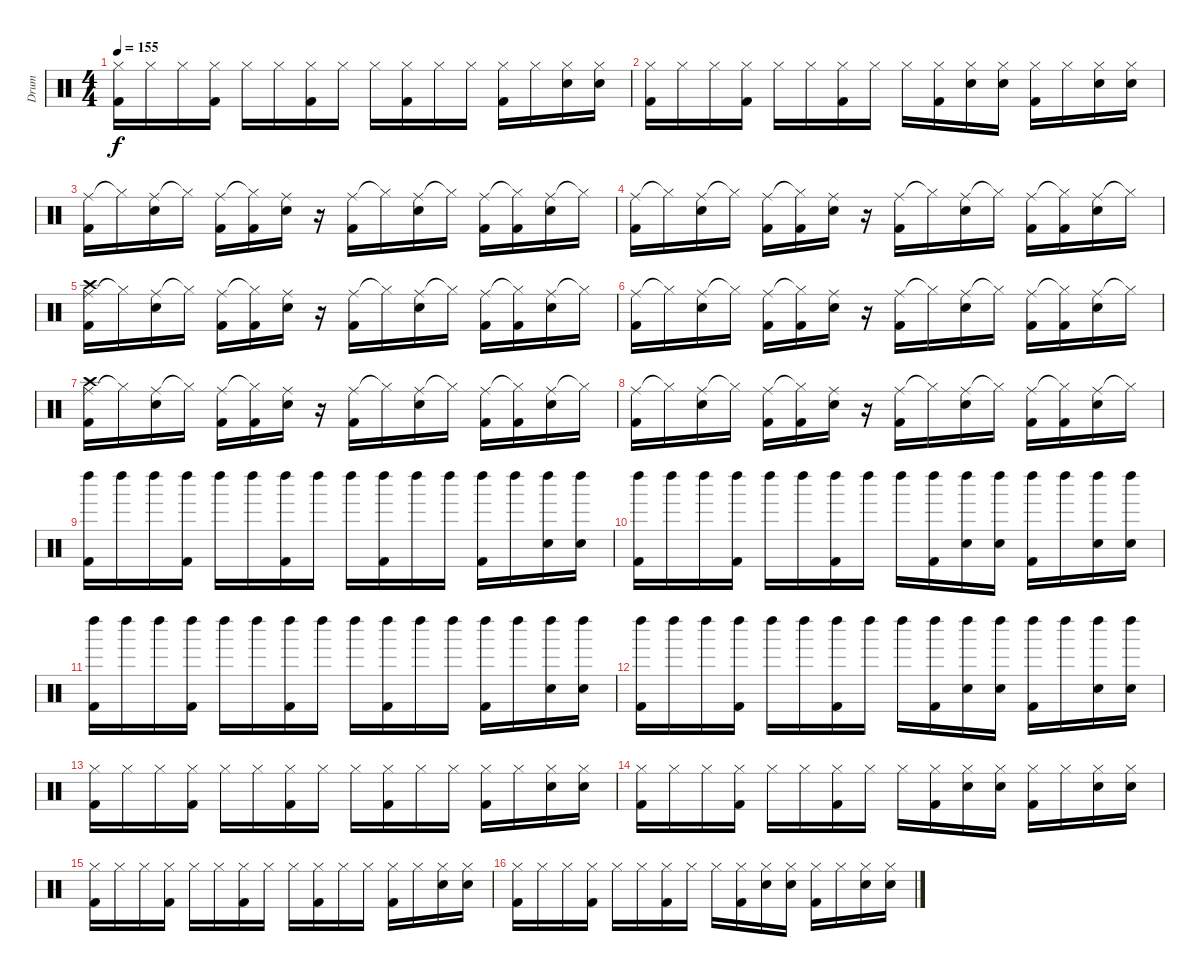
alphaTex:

\track ("Drum" "Drum") {instrument percussion}
\staff {score}
\articulation defaults
\ts (4 4)
\tempo 155
\clef neutral
\ks c
("Hi-Hat (closed)" "Kick (hit) 2").16{dy f} "Hi-Hat (closed)".16 "Hi-Hat (closed)".16 ("Hi-Hat (closed)" "Kick (hit) 2").16 "Hi-Hat (closed)".16 "Hi-Hat (closed)".16 ("Hi-Hat (closed)" "Kick (hit) 2").16 "Hi-Hat (closed)".16 "Hi-Hat (closed)".16 ("Hi-Hat (closed)" "Kick (hit) 2").16 "Hi-Hat (closed)".16 "Hi-Hat (closed)".16 ("Hi-Hat (closed)" "Kick (hit) 2").16 "Hi-Hat (closed)".16 ("Hi-Hat (closed)" "Snare (hit) 2").16 ("Hi-Hat (closed)" "Snare (hit) 2").16 |
("Hi-Hat (closed)" "Kick (hit) 2").16 "Hi-Hat (closed)".16 "Hi-Hat (closed)".16 ("Hi-Hat (closed)" "Kick (hit) 2").16 "Hi-Hat (closed)".16 "Hi-Hat (closed)".16 ("Hi-Hat (closed)" "Kick (hit) 2").16 "Hi-Hat (closed)".16 "Hi-Hat (closed)".16 ("Hi-Hat (closed)" "Kick (hit) 2").16 ("Hi-Hat (closed)" "Snare (hit) 2").16 ("Hi-Hat (closed)" "Snare (hit) 2").16 ("Hi-Hat (closed)" "Kick (hit) 2").16 "Hi-Hat (closed)".16 ("Hi-Hat (closed)" "Snare (hit) 2").16 ("Hi-Hat (closed)" "Snare (hit) 2").16 |
("Ride (middle)" "Kick (hit) 2").16 "Hi-Hat (closed)"{t}.16 ("Ride (middle)" "Snare (hit) 2").16 "Hi-Hat (closed)"{t}.16 ("Ride (middle)" "Kick (hit) 2").16 ("Hi-Hat (closed)"{t} "Kick (hit) 2").16 ("Ride (middle)" "Snare (hit) 2").16 r.16 ("Ride (middle)" "Kick (hit) 2").16 "Hi-Hat (closed)"{t}.16 ("Ride (middle)" "Snare (hit) 2").16 "Hi-Hat (closed)"{t}.16 ("Ride (middle)" "Kick (hit) 2").16 ("Hi-Hat (closed)"{t} "Kick (hit) 2").16 ("Ride (middle)" "Snare (hit) 2").16 "Hi-Hat (closed)"{t}.16 |
("Ride (middle)" "Kick (hit) 2").16 "Hi-Hat (closed)"{t}.16 ("Ride (middle)" "Snare (hit) 2").16 "Hi-Hat (closed)"{t}.16 ("Ride (middle)" "Kick (hit) 2").16 ("Hi-Hat (closed)"{t} "Kick (hit) 2").16 ("Ride (middle)" "Snare (hit) 2").16 r.16 ("Ride (middle)" "Kick (hit) 2").16 "Hi-Hat (closed)"{t}.16 ("Ride (middle)" "Snare (hit) 2").16 "Hi-Hat (closed)"{t}.16 ("Ride (middle)" "Kick (hit) 2").16 ("Hi-Hat (closed)"{t} "Kick (hit) 2").16 ("Ride (middle)" "Snare (hit) 2").16 "Hi-Hat (closed)"{t}.16 |
("Ride (middle)" "Crash high (hit)" "Kick (hit) 2").16 "Hi-Hat (closed)"{t}.16 ("Ride (middle)" "Snare (hit) 2").16 "Hi-Hat (closed)"{t}.16 ("Ride (middle)" "Kick (hit) 2").16 ("Hi-Hat (closed)"{t} "Kick (hit) 2").16 ("Ride (middle)" "Snare (hit) 2").16 r.16 ("Ride (middle)" "Kick (hit) 2").16 "Hi-Hat (closed)"{t}.16 ("Ride (middle)" "Snare (hit) 2").16 "Hi-Hat (closed)"{t}.16 ("Ride (middle)" "Kick (hit) 2").16 ("Hi-Hat (closed)"{t} "Kick (hit) 2").16 ("Ride (middle)" "Snare (hit) 2").16 "Hi-Hat (closed)"{t}.16 |
("Ride (middle)" "Kick (hit) 2").16 "Hi-Hat (closed)"{t}.16 ("Ride (middle)" "Snare (hit) 2").16 "Hi-Hat (closed)"{t}.16 ("Ride (middle)" "Kick (hit) 2").16 ("Hi-Hat (closed)"{t} "Kick (hit) 2").16 ("Ride (middle)" "Snare (hit) 2").16 r.16 ("Ride (middle)" "Kick (hit) 2").16 "Hi-Hat (closed)"{t}.16 ("Ride (middle)" "Snare (hit) 2").16 "Hi-Hat (closed)"{t}.16 ("Ride (middle)" "Kick (hit) 2").16 ("Hi-Hat (closed)"{t} "Kick (hit) 2").16 ("Ride (middle)" "Snare (hit) 2").16 "Hi-Hat (closed)"{t}.16 |
("Ride (middle)" "Crash high (hit)" "Kick (hit) 2").16 "Hi-Hat (closed)"{t}.16 ("Ride (middle)" "Snare (hit) 2").16 "Hi-Hat (closed)"{t}.16 ("Ride (middle)" "Kick (hit) 2").16 ("Hi-Hat (closed)"{t} "Kick (hit) 2").16 ("Ride (middle)" "Snare (hit) 2").16 r.16 ("Ride (middle)" "Kick (hit) 2").16 "Hi-Hat (closed)"{t}.16 ("Ride (middle)" "Snare (hit) 2").16 "Hi-Hat (closed)"{t}.16 ("Ride (middle)" "Kick (hit) 2").16 ("Hi-Hat (closed)"{t} "Kick (hit) 2").16 ("Ride (middle)" "Snare (hit) 2").16 "Hi-Hat (closed)"{t}.16 |
("Ride (middle)" "Kick (hit) 2").16 "Hi-Hat (closed)"{t}.16 ("Ride (middle)" "Snare (hit) 2").16 "Hi-Hat (closed)"{t}.16 ("Ride (middle)" "Kick (hit) 2").16 ("Hi-Hat (closed)"{t} "Kick (hit) 2").16 ("Ride (middle)" "Snare (hit) 2").16 r.16 ("Ride (middle)" "Kick (hit) 2").16 "Hi-Hat (closed)"{t}.16 ("Ride (middle)" "Snare (hit) 2").16 "Hi-Hat (closed)"{t}.16 ("Ride (middle)" "Kick (hit) 2").16 ("Hi-Hat (closed)"{t} "Kick (hit) 2").16 ("Ride (middle)" "Snare (hit) 2").16 "Hi-Hat (closed)"{t}.16 |
("Left Maraca (hit)" "Kick (hit) 2").16 "Left Maraca (hit)".16 "Left Maraca (hit)".16 ("Left Maraca (hit)" "Kick (hit) 2").16 "Left Maraca (hit)".16 "Left Maraca (hit)".16 ("Left Maraca (hit)" "Kick (hit) 2").16 "Left Maraca (hit)".16 "Left Maraca (hit)".16 ("Left Maraca (hit)" "Kick (hit) 2").16 "Left Maraca (hit)".16 "Left Maraca (hit)".16 ("Left Maraca (hit)" "Kick (hit) 2").16 "Left Maraca (hit)".16 ("Left Maraca (hit)" "Snare (hit) 2").16 ("Left Maraca (hit)" "Snare (hit) 2").16 |
("Left Maraca (hit)" "Kick (hit) 2").16 "Left Maraca (hit)".16 "Left Maraca (hit)".16 ("Left Maraca (hit)" "Kick (hit) 2").16 "Left Maraca (hit)".16 "Left Maraca (hit)".16 ("Left Maraca (hit)" "Kick (hit) 2").16 "Left Maraca (hit)".16 "Left Maraca (hit)".16 ("Left Maraca (hit)" "Kick (hit) 2").16 ("Left Maraca (hit)" "Snare (hit) 2").16 ("Left Maraca (hit)" "Snare (hit) 2").16 ("Left Maraca (hit)" "Kick (hit) 2").16 "Left Maraca (hit)".16 ("Left Maraca (hit)" "Snare (hit) 2").16 ("Left Maraca (hit)" "Snare (hit) 2").16 |
("Left Maraca (hit)" "Kick (hit) 2").16 "Left Maraca (hit)".16 "Left Maraca (hit)".16 ("Left Maraca (hit)" "Kick (hit) 2").16 "Left Maraca (hit)".16 "Left Maraca (hit)".16 ("Left Maraca (hit)" "Kick (hit) 2").16 "Left Maraca (hit)".16 "Left Maraca (hit)".16 ("Left Maraca (hit)" "Kick (hit) 2").16 "Left Maraca (hit)".16 "Left Maraca (hit)".16 ("Left Maraca (hit)" "Kick (hit) 2").16 "Left Maraca (hit)".16 ("Left Maraca (hit)" "Snare (hit) 2").16 ("Left Maraca (hit)" "Snare (hit) 2").16 |
("Left Maraca (hit)" "Kick (hit) 2").16 "Left Maraca (hit)".16 "Left Maraca (hit)".16 ("Left Maraca (hit)" "Kick (hit) 2").16 "Left Maraca (hit)".16 "Left Maraca (hit)".16 ("Left Maraca (hit)" "Kick (hit) 2").16 "Left Maraca (hit)".16 "Left Maraca (hit)".16 ("Left Maraca (hit)" "Kick (hit) 2").16 ("Left Maraca (hit)" "Snare (hit) 2").16 ("Left Maraca (hit)" "Snare (hit) 2").16 ("Left Maraca (hit)" "Kick (hit) 2").16 "Left Maraca (hit)".16 ("Left Maraca (hit)" "Snare (hit) 2").16 ("Left Maraca (hit)" "Snare (hit) 2").16 |
("Hi-Hat (closed)" "Kick (hit) 2").16 "Hi-Hat (closed)".16 "Hi-Hat (closed)".16 ("Hi-Hat (closed)" "Kick (hit) 2").16 "Hi-Hat (closed)".16 "Hi-Hat (closed)".16 ("Hi-Hat (closed)" "Kick (hit) 2").16 "Hi-Hat (closed)".16 "Hi-Hat (closed)".16 ("Hi-Hat (closed)" "Kick (hit) 2").16 "Hi-Hat (closed)".16 "Hi-Hat (closed)".16 ("Hi-Hat (closed)" "Kick (hit) 2").16 "Hi-Hat (closed)".16 ("Hi-Hat (closed)" "Snare (hit) 2").16 ("Hi-Hat (closed)" "Snare (hit) 2").16 |
("Hi-Hat (closed)" "Kick (hit) 2").16 "Hi-Hat (closed)".16 "Hi-Hat (closed)".16 ("Hi-Hat (closed)" "Kick (hit) 2").16 "Hi-Hat (closed)".16 "Hi-Hat (closed)".16 ("Hi-Hat (closed)" "Kick (hit) 2").16 "Hi-Hat (closed)".16 "Hi-Hat (closed)".16 ("Hi-Hat (closed)" "Kick (hit) 2").16 ("Hi-Hat (closed)" "Snare (hit) 2").16 ("Hi-Hat (closed)" "Snare (hit) 2").16 ("Hi-Hat (closed)" "Kick (hit) 2").16 "Hi-Hat (closed)".16 ("Hi-Hat (closed)" "Snare (hit) 2").16 ("Hi-Hat (closed)" "Snare (hit) 2").16 |
("Hi-Hat (closed)" "Kick (hit) 2").16 "Hi-Hat (closed)".16 "Hi-Hat (closed)".16 ("Hi-Hat (closed)" "Kick (hit) 2").16 "Hi-Hat (closed)".16 "Hi-Hat (closed)".16 ("Hi-Hat (closed)" "Kick (hit) 2").16 "Hi-Hat (closed)".16 "Hi-Hat (closed)".16 ("Hi-Hat (closed)" "Kick (hit) 2").16 "Hi-Hat (closed)".16 "Hi-Hat (closed)".16 ("Hi-Hat (closed)" "Kick (hit) 2").16 "Hi-Hat (closed)".16 ("Hi-Hat (closed)" "Snare (hit) 2").16 ("Hi-Hat (closed)" "Snare (hit) 2").16 |
("Hi-Hat (closed)" "Kick (hit) 2").16 "Hi-Hat (closed)".16 "Hi-Hat (closed)".16 ("Hi-Hat (closed)" "Kick (hit) 2").16 "Hi-Hat (closed)".16 "Hi-Hat (closed)".16 ("Hi-Hat (closed)" "Kick (hit) 2").16 "Hi-Hat (closed)".16 "Hi-Hat (closed)".16 ("Hi-Hat (closed)" "Kick (hit) 2").16 ("Hi-Hat (closed)" "Snare (hit) 2").16 ("Hi-Hat (closed)" "Snare (hit) 2").16 ("Hi-Hat (closed)" "Kick (hit) 2").16 "Hi-Hat (closed)".16 ("Hi-Hat (closed)" "Snare (hit) 2").16 ("Hi-Hat (closed)" "Snare (hit) 2").16
